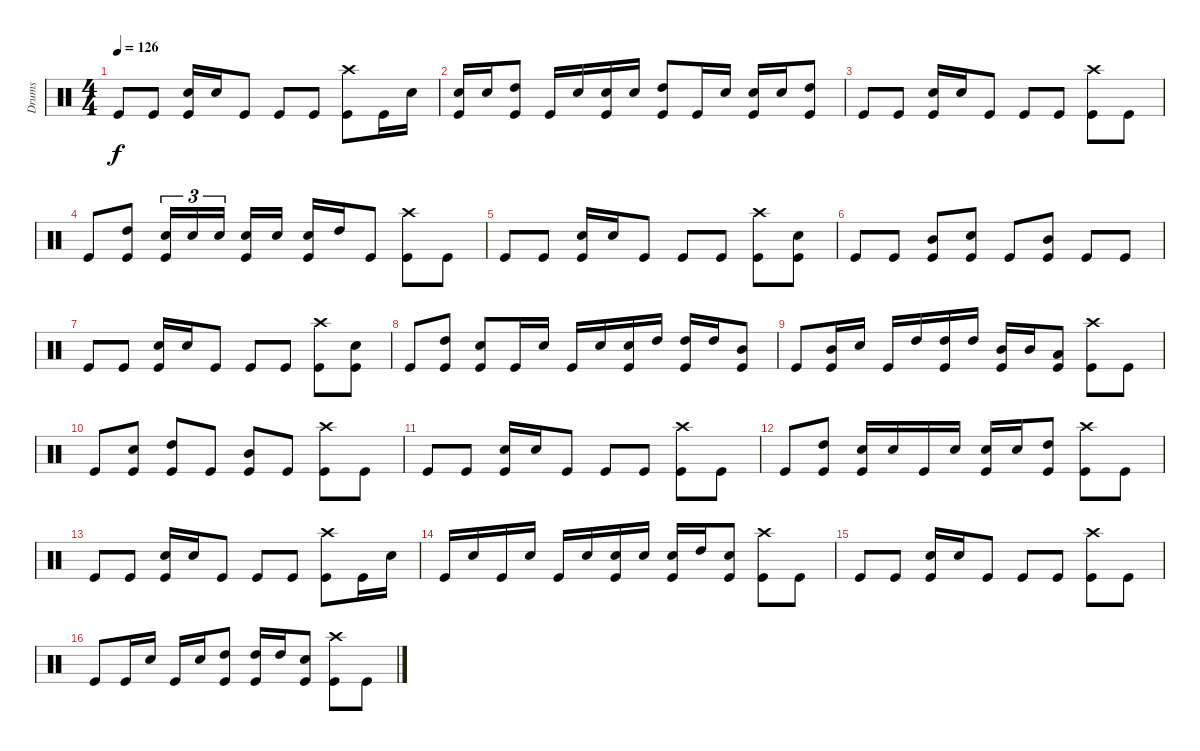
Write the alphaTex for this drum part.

\track ("Drums" "Drums") {instrument percussion}
\staff {score}
\articulation defaults
\ts (4 4)
\tempo 126
\clef neutral
\ks c "Kick (hit)".8{dy f} "Kick (hit)".8
("Electric Snare (hit)" "Kick (hit)").16 "Electric Snare (hit)".16 "Kick (hit)".8 "Kick (hit)".8 "Kick (hit)".8 ("Crash high (hit)" "Kick (hit)").8 "Kick (hit)".16 "Electric Snare (hit)".16 |
("Electric Snare (hit)" "Kick (hit)").16 "Electric Snare (hit)".16 ("High Tom (hit)" "Kick (hit)").8 "Kick (hit)".16 "Electric Snare (hit)".16 ("Electric Snare (hit)" "Kick (hit)").16 "Electric Snare (hit)".16 ("High Tom (hit)" "Kick (hit)").8 "Kick (hit)".16 "Electric Snare (hit)".16 ("Electric Snare (hit)" "Kick (hit)").16 "Electric Snare (hit)".16 ("High Tom (hit)" "Kick (hit)").8 |
"Kick (hit)".8 "Kick (hit)".8 ("Electric Snare (hit)" "Kick (hit)").16 "Electric Snare (hit)".16 "Kick (hit)".8 "Kick (hit)".8 "Kick (hit)".8 ("Crash high (hit)" "Kick (hit)").8 "Kick (hit)".8 |
"Kick (hit)".8 ("High Tom (hit)" "Kick (hit)").8 ("Electric Snare (hit)" "Kick (hit)").16{tu (3 2)} "Electric Snare (hit)".16{tu (3 2)} "Electric Snare (hit)".16{tu (3 2) beam splitsecondary} ("Electric Snare (hit)" "Kick (hit)").16 "Electric Snare (hit)".16 ("Electric Snare (hit)" "Kick (hit)").16 "High Tom (hit)".16 "Kick (hit)".8 ("Crash high (hit)" "Kick (hit)").8 "Kick (hit)".8 |
"Kick (hit)".8 "Kick (hit)".8 ("Electric Snare (hit)" "Kick (hit)").16 "Electric Snare (hit)".16 "Kick (hit)".8 "Kick (hit)".8 "Kick (hit)".8 ("Crash high (hit)" "Kick (hit)").8 ("Electric Snare (hit)" "Kick (hit)").8 |
"Kick (hit)".8 "Kick (hit)".8 ("Mid Tom (hit)" "Kick (hit)").8 ("Electric Snare (hit)" "Kick (hit)").8 "Kick (hit)".8 ("Mid Tom (hit)" "Kick (hit)").8 "Kick (hit)".8 "Kick (hit)".8 |
"Kick (hit)".8 "Kick (hit)".8 ("Electric Snare (hit)" "Kick (hit)").16 "Electric Snare (hit)".16 "Kick (hit)".8 "Kick (hit)".8 "Kick (hit)".8 ("Crash high (hit)" "Kick (hit)").8 ("Electric Snare (hit)" "Kick (hit)").8 |
"Kick (hit)".8 ("High Tom (hit)" "Kick (hit)").8 ("Electric Snare (hit)" "Kick (hit)").8 "Kick (hit)".16 "Electric Snare (hit)".16 "Kick (hit)".16 "Electric Snare (hit)".16 ("Electric Snare (hit)" "Kick (hit)").16 "High Tom (hit)".16 ("High Tom (hit)" "Kick (hit)").16 "High Tom (hit)".16 ("Mid Tom (hit)" "Kick (hit)").8 |
"Kick (hit)".8 ("Mid Tom (hit)" "Kick (hit)").16 "Electric Snare (hit)".16 "Kick (hit)".16 "High Tom (hit)".16 ("High Tom (hit)" "Kick (hit)").16 "High Tom (hit)".16 ("Mid Tom (hit)" "Kick (hit)").16 "Mid Tom (hit)".16 ("Low Floor Tom (hit)" "Kick (hit)").8 ("Crash high (hit)" "Kick (hit)").8 "Kick (hit)".8 |
"Kick (hit)".8 ("Electric Snare (hit)" "Kick (hit)").8 ("High Tom (hit)" "Kick (hit)").8 "Kick (hit)".8 ("Mid Tom (hit)" "Kick (hit)").8 "Kick (hit)".8 ("Crash high (hit)" "Kick (hit)").8 "Kick (hit)".8 |
"Kick (hit)".8 "Kick (hit)".8 ("Electric Snare (hit)" "Kick (hit)").16 "Electric Snare (hit)".16 "Kick (hit)".8 "Kick (hit)".8 "Kick (hit)".8 ("Crash high (hit)" "Kick (hit)").8 "Kick (hit)".8 |
"Kick (hit)".8 ("High Tom (hit)" "Kick (hit)").8 ("Electric Snare (hit)" "Kick (hit)").16 "Electric Snare (hit)".16 "Kick (hit)".16 "Electric Snare (hit)".16 ("Electric Snare (hit)" "Kick (hit)").16 "Electric Snare (hit)".16 ("High Tom (hit)" "Kick (hit)").8 ("Crash high (hit)" "Kick (hit)").8 "Kick (hit)".8 |
"Kick (hit)".8 "Kick (hit)".8 ("Electric Snare (hit)" "Kick (hit)").16 "Electric Snare (hit)".16 "Kick (hit)".8 "Kick (hit)".8 "Kick (hit)".8 ("Crash high (hit)" "Kick (hit)").8 "Kick (hit)".16 "Electric Snare (hit)".16 |
"Kick (hit)".16 "Electric Snare (hit)".16 "Kick (hit)".16 "Electric Snare (hit)".16 "Kick (hit)".16 "Electric Snare (hit)".16 ("Electric Snare (hit)" "Kick (hit)").16 "Electric Snare (hit)".16 ("Electric Snare (hit)" "Kick (hit)").16 "High Tom (hit)".16 ("Electric Snare (hit)" "Kick (hit)").8 ("Crash high (hit)" "Kick (hit)").8 "Kick (hit)".8 |
"Kick (hit)".8 "Kick (hit)".8 ("Electric Snare (hit)" "Kick (hit)").16 "Electric Snare (hit)".16 "Kick (hit)".8 "Kick (hit)".8 "Kick (hit)".8 ("Crash high (hit)" "Kick (hit)").8 "Kick (hit)".8 |
"Kick (hit)".8 "Kick (hit)".16 "Electric Snare (hit)".16 "Kick (hit)".16 "Electric Snare (hit)".16 ("High Tom (hit)" "Kick (hit)").8 ("High Tom (hit)" "Kick (hit)").16 "High Tom (hit)".16 ("Electric Snare (hit)" "Kick (hit)").8 ("Crash high (hit)" "Kick (hit)").8 "Kick (hit)".8
